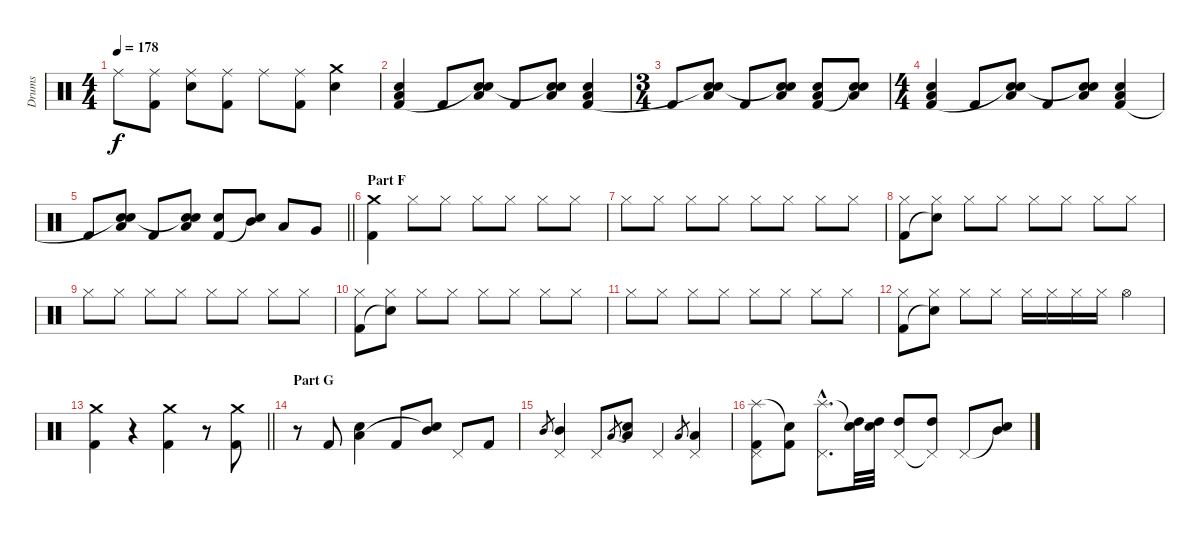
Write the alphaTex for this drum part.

\track ("Drums" "Drums") {instrument percussion}
\staff {score}
\articulation defaults
\ts (4 4)
\tempo 178
\clef neutral
\ks c "Ride (middle)".8{dy f}
("Ride (middle)" "Kick (hit) 2").8 ("Ride (middle)" "Electric Snare (hit)").8 ("Ride (middle)" "Kick (hit) 2").8 "Ride (middle)".8 ("Ride (middle)" "Kick (hit) 2").8 ("Crash medium (hit)" "Electric Snare (hit)").4 |
("Electric Snare (hit)" "Low Floor Tom (hit)" "Kick (hit) 2").4 "Kick (hit) 2".8 ("Electric Snare (hit)" "Low Floor Tom (hit)" "Snare (hit)"{t}).8 "Kick (hit) 2".8 ("Electric Snare (hit)" "Low Floor Tom (hit)" "Snare (hit)"{t}).8 ("Electric Snare (hit)" "Low Floor Tom (hit)" "Kick (hit) 2").4 |
\ts (3 4)
"Kick (hit) 2".8 ("Electric Snare (hit)" "Low Floor Tom (hit)" "Snare (hit)"{t}).8 "Kick (hit) 2".8 ("Electric Snare (hit)" "Low Floor Tom (hit)" "Snare (hit)"{t}).8 ("Electric Snare (hit)" "Low Floor Tom (hit)" "Kick (hit) 2").8 ("Electric Snare (hit)" "Low Floor Tom (hit)" "Snare (hit)"{t}).8 |
\ts (4 4)
("Electric Snare (hit)" "Low Floor Tom (hit)" "Kick (hit) 2").4 "Kick (hit) 2".8 ("Electric Snare (hit)" "Low Floor Tom (hit)" "Snare (hit)"{t}).8 "Kick (hit) 2".8 ("Electric Snare (hit)" "Low Floor Tom (hit)" "Snare (hit)"{t}).8 ("Electric Snare (hit)" "Low Floor Tom (hit)" "Kick (hit) 2").4 |
\barLineRight lightlight "Kick (hit) 2".8
("Electric Snare (hit)" "Low Floor Tom (hit)" "Snare (hit)"{t}).8 "Kick (hit) 2".8 ("Electric Snare (hit)" "Low Floor Tom (hit)" "Snare (hit)"{t}).8 ("Electric Snare (hit)" "Kick (hit) 2").8 ("Mid Tom (hit)" "Snare (hit)"{t}).8 "Low Tom (hit)".8 "Very Low Tom (hit)".8 |
\section ("" "Part F")
("Crash medium (hit)" "Kick (hit) 2").4 "Hi-Hat (closed)".8 "Hi-Hat (closed)".8 "Hi-Hat (closed)".8 "Hi-Hat (closed)".8 "Hi-Hat (closed)".8 "Hi-Hat (closed)".8 |
"Hi-Hat (closed)".8 "Hi-Hat (closed)".8 "Hi-Hat (closed)".8 "Hi-Hat (closed)".8 "Hi-Hat (closed)".8 "Hi-Hat (closed)".8 "Hi-Hat (closed)".8 "Hi-Hat (closed)".8 |
("Hi-Hat (closed)" "Kick (hit) 2").8 ("Hi-Hat (closed)" "Snare (hit)"{t}).8 "Hi-Hat (closed)".8 "Hi-Hat (closed)".8 "Hi-Hat (closed)".8 "Hi-Hat (closed)".8 "Hi-Hat (closed)".8 "Hi-Hat (closed)".8 |
"Hi-Hat (closed)".8 "Hi-Hat (closed)".8 "Hi-Hat (closed)".8 "Hi-Hat (closed)".8 "Hi-Hat (closed)".8 "Hi-Hat (closed)".8 "Hi-Hat (closed)".8 "Hi-Hat (closed)".8 |
("Hi-Hat (closed)" "Kick (hit) 2").8 ("Hi-Hat (closed)" "Snare (hit)"{t}).8 "Hi-Hat (closed)".8 "Hi-Hat (closed)".8 "Hi-Hat (closed)".8 "Hi-Hat (closed)".8 "Hi-Hat (closed)".8 "Hi-Hat (closed)".8 |
"Hi-Hat (closed)".8 "Hi-Hat (closed)".8 "Hi-Hat (closed)".8 "Hi-Hat (closed)".8 "Hi-Hat (closed)".8 "Hi-Hat (closed)".8 "Hi-Hat (closed)".8 "Hi-Hat (closed)".8 |
("Hi-Hat (closed)" "Kick (hit) 2").8 ("Hi-Hat (closed)" "Snare (hit)"{t}).8 "Hi-Hat (closed)".8 "Hi-Hat (closed)".8 "Hi-Hat (closed)".16 "Hi-Hat (closed)".16 "Hi-Hat (closed)".16 "Hi-Hat (closed)".16 "Hi-Hat (open)".4 |
\barLineRight lightlight
("Crash medium (hit)" "Kick (hit) 2").4 r.4 ("Crash medium (hit)" "Kick (hit) 2").4 r.8 ("Crash medium (hit)" "Kick (hit) 2").8 |
\section ("" "Part G")
r.8 "Kick (hit) 2".8 ("Electric Snare (hit)" "Low Floor Tom (hit)").4 "Kick (hit) 2".8 ("Mid Tom (hit)" "Snare (hit)"{t}).8 "Pedal Hi-Hat (hit)".8 "Kick (hit) 2".8 |
"Mid Tom (hit)".8{gr} ("Pedal Hi-Hat (hit)" "Mid Tom (hit)").4 "Pedal Hi-Hat (hit)".8 "Low Tom (hit)".8{gr} ("Snare (hit)"{t} "Low Tom (hit)").8 "Pedal Hi-Hat (hit)".4 "Low Floor Tom (hit)".8{gr} ("Pedal Hi-Hat (hit)" "Low Floor Tom (hit)").4 |
("Splash (hit)" "Pedal Hi-Hat (hit)" "Kick (hit) 2").8 ("Snare (hit)"{t} "Kick (hit) 2").8 ("Splash (hit)"{hac} "Pedal Hi-Hat (hit)"{hac}).8{d} ("Snare (hit)"{t} "High Tom (hit)").32 ("Snare (hit)"{t} "High Tom (hit)").32 ("Pedal Hi-Hat (hit)" "High Tom (hit)").8 ("Pedal Hi-Hat (hit)"{t} "High Tom (hit)").8 "Pedal Hi-Hat (hit)".8 ("Snare (hit)"{t} "Mid Tom (hit)").8
